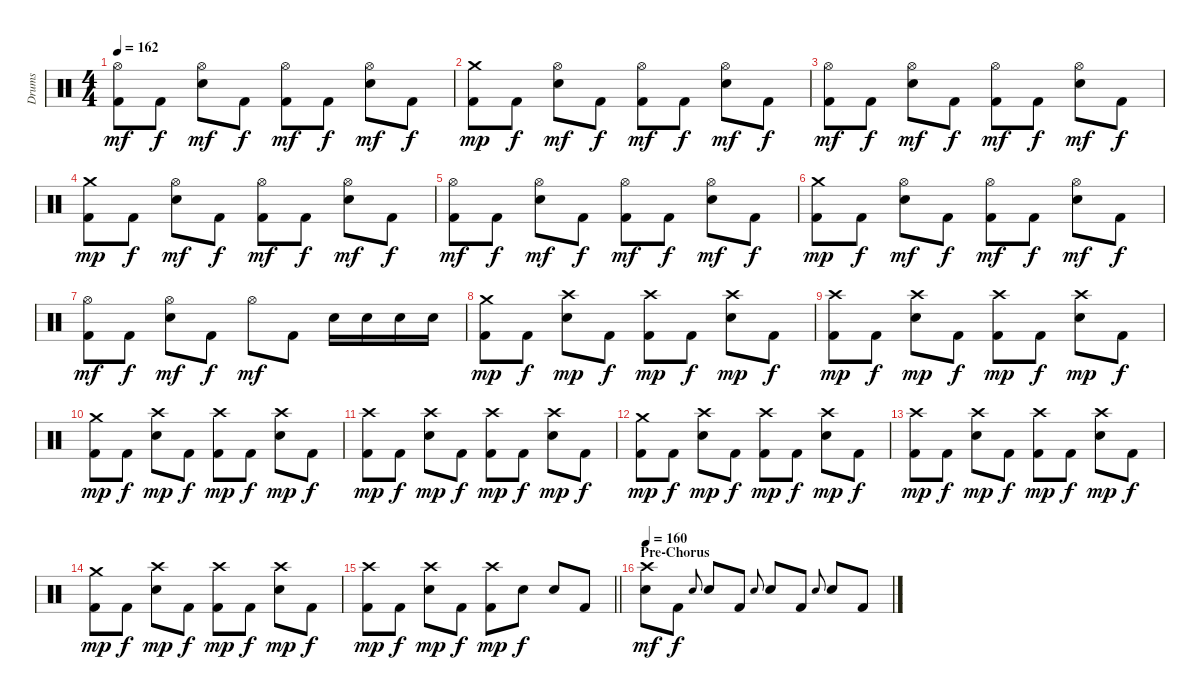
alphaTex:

\track ("Drums" "Drums") {instrument percussion}
\staff {score}
\articulation defaults
\ts (4 4)
\tempo 162
\clef neutral
\ks c
("Hi-Hat (open)" "Kick (hit) 2").8{dy mf} "Kick (hit) 2".8{dy f} ("Hi-Hat (open)" "Electric Snare (hit)").8{dy mf} "Kick (hit) 2".8{dy f} ("Hi-Hat (open)" "Kick (hit) 2").8{dy mf} "Kick (hit) 2".8{dy f} ("Hi-Hat (open)" "Electric Snare (hit)").8{dy mf} "Kick (hit) 2".8{dy f} |
("Crash medium (hit)" "Kick (hit) 2").8{dy mp} "Kick (hit) 2".8{dy f} ("Hi-Hat (open)" "Electric Snare (hit)").8{dy mf} "Kick (hit) 2".8{dy f} ("Hi-Hat (open)" "Kick (hit) 2").8{dy mf} "Kick (hit) 2".8{dy f} ("Hi-Hat (open)" "Electric Snare (hit)").8{dy mf} "Kick (hit) 2".8{dy f} |
("Hi-Hat (open)" "Kick (hit) 2").8{dy mf} "Kick (hit) 2".8{dy f} ("Hi-Hat (open)" "Electric Snare (hit)").8{dy mf} "Kick (hit) 2".8{dy f} ("Hi-Hat (open)" "Kick (hit) 2").8{dy mf} "Kick (hit) 2".8{dy f} ("Hi-Hat (open)" "Electric Snare (hit)").8{dy mf} "Kick (hit) 2".8{dy f} |
("Crash medium (hit)" "Kick (hit) 2").8{dy mp} "Kick (hit) 2".8{dy f} ("Hi-Hat (open)" "Electric Snare (hit)").8{dy mf} "Kick (hit) 2".8{dy f} ("Hi-Hat (open)" "Kick (hit) 2").8{dy mf} "Kick (hit) 2".8{dy f} ("Hi-Hat (open)" "Electric Snare (hit)").8{dy mf} "Kick (hit) 2".8{dy f} |
("Hi-Hat (open)" "Kick (hit) 2").8{dy mf} "Kick (hit) 2".8{dy f} ("Hi-Hat (open)" "Electric Snare (hit)").8{dy mf} "Kick (hit) 2".8{dy f} ("Hi-Hat (open)" "Kick (hit) 2").8{dy mf} "Kick (hit) 2".8{dy f} ("Hi-Hat (open)" "Electric Snare (hit)").8{dy mf} "Kick (hit) 2".8{dy f} |
("Crash medium (hit)" "Kick (hit) 2").8{dy mp} "Kick (hit) 2".8{dy f} ("Hi-Hat (open)" "Electric Snare (hit)").8{dy mf} "Kick (hit) 2".8{dy f} ("Hi-Hat (open)" "Kick (hit) 2").8{dy mf} "Kick (hit) 2".8{dy f} ("Hi-Hat (open)" "Electric Snare (hit)").8{dy mf} "Kick (hit) 2".8{dy f} |
("Hi-Hat (open)" "Kick (hit) 2").8{dy mf} "Kick (hit) 2".8{dy f} ("Hi-Hat (open)" "Electric Snare (hit)").8{dy mf} "Kick (hit) 2".8{dy f} "Hi-Hat (open)".8{dy mf} "Kick (hit) 2".8 "Electric Snare (hit)".16 "Electric Snare (hit)".16 "Electric Snare (hit)".16 "Electric Snare (hit)".16 |
("Crash medium (hit)" "Kick (hit) 2").8{dy mp} "Kick (hit) 2".8{dy f} ("Crash high (hit)" "Electric Snare (hit)").8{dy mp} "Kick (hit) 2".8{dy f} ("Crash high (hit)" "Kick (hit) 2").8{dy mp} "Kick (hit) 2".8{dy f} ("Crash high (hit)" "Electric Snare (hit)").8{dy mp} "Kick (hit) 2".8{dy f} |
("Crash high (hit)" "Kick (hit) 2").8{dy mp} "Kick (hit) 2".8{dy f} ("Crash high (hit)" "Electric Snare (hit)").8{dy mp} "Kick (hit) 2".8{dy f} ("Crash high (hit)" "Kick (hit) 2").8{dy mp} "Kick (hit) 2".8{dy f} ("Crash high (hit)" "Electric Snare (hit)").8{dy mp} "Kick (hit) 2".8{dy f} |
("Crash medium (hit)" "Kick (hit) 2").8{dy mp} "Kick (hit) 2".8{dy f} ("Crash high (hit)" "Electric Snare (hit)").8{dy mp} "Kick (hit) 2".8{dy f} ("Crash high (hit)" "Kick (hit) 2").8{dy mp} "Kick (hit) 2".8{dy f} ("Crash high (hit)" "Electric Snare (hit)").8{dy mp} "Kick (hit) 2".8{dy f} |
("Crash high (hit)" "Kick (hit) 2").8{dy mp} "Kick (hit) 2".8{dy f} ("Crash high (hit)" "Electric Snare (hit)").8{dy mp} "Kick (hit) 2".8{dy f} ("Crash high (hit)" "Kick (hit) 2").8{dy mp} "Kick (hit) 2".8{dy f} ("Crash high (hit)" "Electric Snare (hit)").8{dy mp} "Kick (hit) 2".8{dy f} |
("Crash medium (hit)" "Kick (hit) 2").8{dy mp} "Kick (hit) 2".8{dy f} ("Crash high (hit)" "Electric Snare (hit)").8{dy mp} "Kick (hit) 2".8{dy f} ("Crash high (hit)" "Kick (hit) 2").8{dy mp} "Kick (hit) 2".8{dy f} ("Crash high (hit)" "Electric Snare (hit)").8{dy mp} "Kick (hit) 2".8{dy f} |
("Crash high (hit)" "Kick (hit) 2").8{dy mp} "Kick (hit) 2".8{dy f} ("Crash high (hit)" "Electric Snare (hit)").8{dy mp} "Kick (hit) 2".8{dy f} ("Crash high (hit)" "Kick (hit) 2").8{dy mp} "Kick (hit) 2".8{dy f} ("Crash high (hit)" "Electric Snare (hit)").8{dy mp} "Kick (hit) 2".8{dy f} |
("Crash medium (hit)" "Kick (hit) 2").8{dy mp} "Kick (hit) 2".8{dy f} ("Crash high (hit)" "Electric Snare (hit)").8{dy mp} "Kick (hit) 2".8{dy f} ("Crash high (hit)" "Kick (hit) 2").8{dy mp} "Kick (hit) 2".8{dy f} ("Crash high (hit)" "Electric Snare (hit)").8{dy mp} "Kick (hit) 2".8{dy f} |
\barLineRight lightlight
("Crash high (hit)" "Kick (hit) 2").8{dy mp} "Kick (hit) 2".8{dy f} ("Crash high (hit)" "Electric Snare (hit)").8{dy mp} "Kick (hit) 2".8{dy f} ("Crash high (hit)" "Kick (hit) 2").8{dy mp} "Electric Snare (hit)".8{dy f} "Electric Snare (hit)".8 "Kick (hit) 2".8 |
\section ("" "Pre-Chorus")
\tempo 160
("Crash high (hit)" "Electric Snare (hit)").8{dy mf} "Kick (hit) 2".8{dy f} "Electric Snare (hit)".8{gr onbeat} "Electric Snare (hit)".8 "Kick (hit) 2".8 "Electric Snare (hit)".8{gr onbeat} "Electric Snare (hit)".8 "Kick (hit) 2".8 "Electric Snare (hit)".8{gr onbeat} "Electric Snare (hit)".8 "Kick (hit) 2".8
